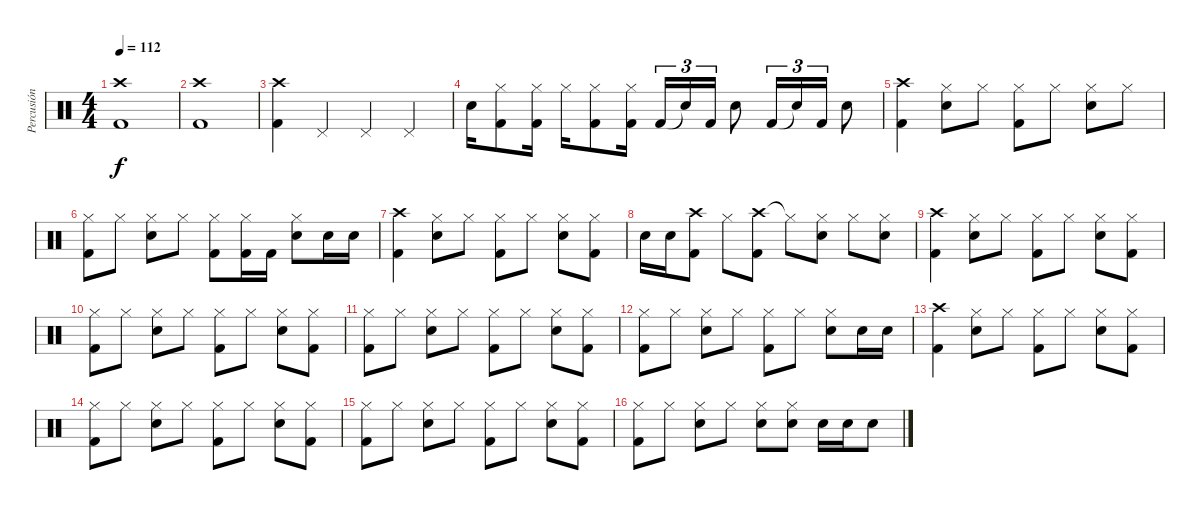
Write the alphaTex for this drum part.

\track ("Percusión" "Percusión") {instrument percussion}
\staff {score}
\articulation defaults
\ts (4 4)
\tempo 112
\clef neutral
\ks c
("Crash high (hit)" "Kick (hit) 2").1{dy f} |
("Crash high (hit)" "Kick (hit) 2").1 |
("Crash high (hit)" "Kick (hit) 2").4 "Pedal Hi-Hat (hit)".4 "Pedal Hi-Hat (hit)".4 "Pedal Hi-Hat (hit)".4 |
"Electric Snare (hit)".16 ("Hi-Hat (closed)" "Kick (hit) 2").8 ("Hi-Hat (closed)" "Kick (hit) 2").16 "Hi-Hat (closed)".16 ("Hi-Hat (closed)" "Kick (hit) 2").8 ("Hi-Hat (closed)" "Kick (hit) 2").16 "Kick (hit) 2".16{tu (3 2)} "Snare (hit)"{t}.16{tu (3 2)} "Kick (hit) 2".16{tu (3 2)} "Electric Snare (hit)".8 "Kick (hit) 2".16{tu (3 2)} "Snare (hit)"{t}.16{tu (3 2)} "Kick (hit) 2".16{tu (3 2)} "Electric Snare (hit)".8 |
("Crash high (hit)" "Kick (hit) 2").4 ("Hi-Hat (closed)" "Electric Snare (hit)").8 "Hi-Hat (closed)".8 ("Hi-Hat (closed)" "Kick (hit) 2").8 "Hi-Hat (closed)".8 ("Hi-Hat (closed)" "Electric Snare (hit)").8 "Hi-Hat (closed)".8 |
("Hi-Hat (closed)" "Kick (hit) 2").8 "Hi-Hat (closed)".8 ("Hi-Hat (closed)" "Electric Snare (hit)").8 "Hi-Hat (closed)".8 ("Hi-Hat (closed)" "Kick (hit) 2").8 ("Hi-Hat (closed)" "Kick (hit) 2").16 "Kick (hit) 2".16 ("Hi-Hat (closed)" "Electric Snare (hit)").8 "Electric Snare (hit)".16 "Electric Snare (hit)".16 |
("Crash high (hit)" "Kick (hit) 2").4 ("Hi-Hat (closed)" "Electric Snare (hit)").8 "Hi-Hat (closed)".8 ("Hi-Hat (closed)" "Kick (hit) 2").8 "Hi-Hat (closed)".8 ("Hi-Hat (closed)" "Electric Snare (hit)").8 ("Hi-Hat (closed)" "Kick (hit) 2").8 |
"Electric Snare (hit)".16 "Electric Snare (hit)".16 ("Crash high (hit)" "Kick (hit) 2").8 "Hi-Hat (closed)".8 ("Crash high (hit)" "Kick (hit) 2").8 "Hi-Hat (closed)"{t}.8 ("Hi-Hat (closed)" "Electric Snare (hit)").8 "Hi-Hat (closed)".8 ("Hi-Hat (closed)" "Electric Snare (hit)").8 |
("Crash high (hit)" "Kick (hit) 2").4 ("Hi-Hat (closed)" "Electric Snare (hit)").8 "Hi-Hat (closed)".8 ("Hi-Hat (closed)" "Kick (hit) 2").8 "Hi-Hat (closed)".8 ("Hi-Hat (closed)" "Electric Snare (hit)").8 ("Hi-Hat (closed)" "Kick (hit) 2").8 |
("Hi-Hat (closed)" "Kick (hit) 2").8 "Hi-Hat (closed)".8 ("Hi-Hat (closed)" "Electric Snare (hit)").8 "Hi-Hat (closed)".8 ("Hi-Hat (closed)" "Kick (hit) 2").8 "Hi-Hat (closed)".8 ("Hi-Hat (closed)" "Electric Snare (hit)").8 ("Hi-Hat (closed)" "Kick (hit) 2").8 |
("Hi-Hat (closed)" "Kick (hit) 2").8 "Hi-Hat (closed)".8 ("Hi-Hat (closed)" "Electric Snare (hit)").8 "Hi-Hat (closed)".8 ("Hi-Hat (closed)" "Kick (hit) 2").8 "Hi-Hat (closed)".8 ("Hi-Hat (closed)" "Electric Snare (hit)").8 ("Hi-Hat (closed)" "Kick (hit) 2").8 |
("Hi-Hat (closed)" "Kick (hit) 2").8 "Hi-Hat (closed)".8 ("Hi-Hat (closed)" "Electric Snare (hit)").8 "Hi-Hat (closed)".8 ("Hi-Hat (closed)" "Kick (hit) 2").8 "Hi-Hat (closed)".8 ("Hi-Hat (closed)" "Electric Snare (hit)").8 "Electric Snare (hit)".16 "Electric Snare (hit)".16 |
("Crash high (hit)" "Kick (hit) 2").4 ("Hi-Hat (closed)" "Electric Snare (hit)").8 "Hi-Hat (closed)".8 ("Hi-Hat (closed)" "Kick (hit) 2").8 "Hi-Hat (closed)".8 ("Hi-Hat (closed)" "Electric Snare (hit)").8 ("Hi-Hat (closed)" "Kick (hit) 2").8 |
("Hi-Hat (closed)" "Kick (hit) 2").8 "Hi-Hat (closed)".8 ("Hi-Hat (closed)" "Electric Snare (hit)").8 "Hi-Hat (closed)".8 ("Hi-Hat (closed)" "Kick (hit) 2").8 "Hi-Hat (closed)".8 ("Hi-Hat (closed)" "Electric Snare (hit)").8 ("Hi-Hat (closed)" "Kick (hit) 2").8 |
("Hi-Hat (closed)" "Kick (hit) 2").8 "Hi-Hat (closed)".8 ("Hi-Hat (closed)" "Electric Snare (hit)").8 "Hi-Hat (closed)".8 ("Hi-Hat (closed)" "Kick (hit) 2").8 "Hi-Hat (closed)".8 ("Hi-Hat (closed)" "Electric Snare (hit)").8 ("Hi-Hat (closed)" "Kick (hit) 2").8 |
("Hi-Hat (closed)" "Kick (hit) 2").8 "Hi-Hat (closed)".8 ("Hi-Hat (closed)" "Electric Snare (hit)").8 "Hi-Hat (closed)".8 ("Hi-Hat (closed)" "Electric Snare (hit)").8 ("Hi-Hat (closed)" "Electric Snare (hit)").8 "Electric Snare (hit)".16 "Electric Snare (hit)".16 "Electric Snare (hit)".8
